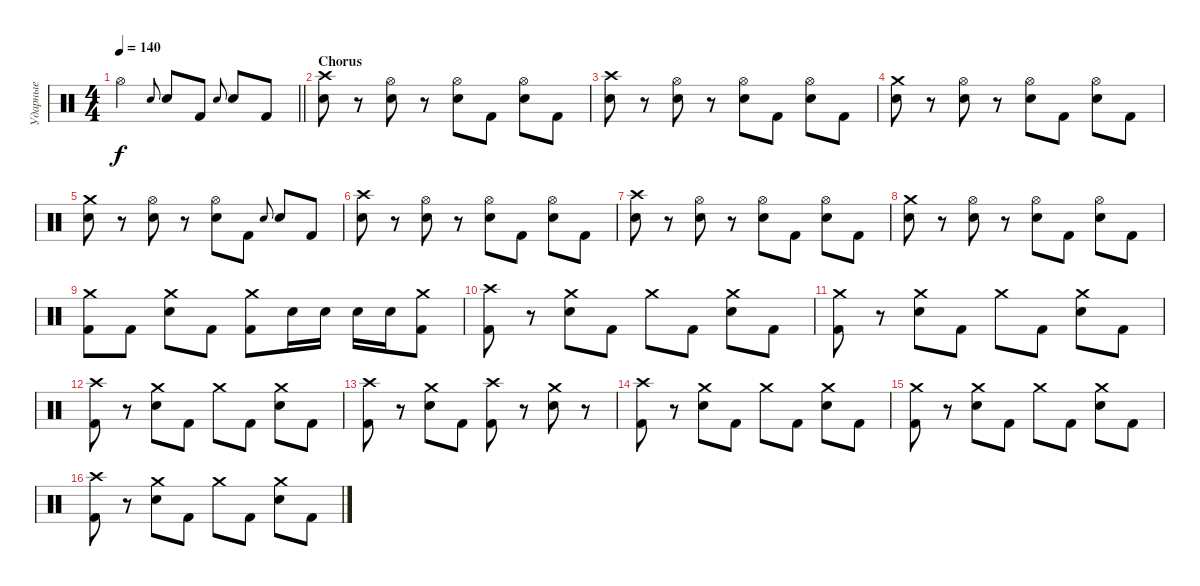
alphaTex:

\track ("Ударные" "Ударные") {instrument percussion}
\staff {score}
\articulation defaults
\ts (4 4)
\tempo 140
\clef neutral
\barLineRight lightlight
\ks c "Hi-Hat (open)".2{dy f} "Snare (hit) 2".8{gr onbeat} "Snare (hit) 2".8 "Kick (hit) 2".8 "Snare (hit) 2".8{gr onbeat} "Snare (hit) 2".8 "Kick (hit) 2".8
|
\section ("" "Chorus")
("Crash high (hit)" "Snare (hit) 2").8 r.8 ("Hi-Hat (open)" "Snare (hit) 2").8 r.8 ("Hi-Hat (open)" "Snare (hit) 2").8 "Kick (hit) 2".8 ("Hi-Hat (open)" "Snare (hit) 2").8 "Kick (hit) 2".8 |
("Crash high (hit)" "Snare (hit) 2").8 r.8 ("Hi-Hat (open)" "Snare (hit) 2").8 r.8 ("Hi-Hat (open)" "Snare (hit) 2").8 "Kick (hit) 2".8 ("Hi-Hat (open)" "Snare (hit) 2").8 "Kick (hit) 2".8 |
("Crash medium (hit)" "Snare (hit) 2").8 r.8 ("Hi-Hat (open)" "Snare (hit) 2").8 r.8 ("Hi-Hat (open)" "Snare (hit) 2").8 "Kick (hit) 2".8 ("Hi-Hat (open)" "Snare (hit) 2").8 "Kick (hit) 2".8 |
("Crash medium (hit)" "Snare (hit) 2").8 r.8 ("Hi-Hat (open)" "Snare (hit) 2").8 r.8 ("Hi-Hat (open)" "Snare (hit) 2").8 "Kick (hit) 2".8 "Snare (hit) 2".8{gr onbeat} "Snare (hit) 2".8 "Kick (hit) 2".8 |
("Crash high (hit)" "Snare (hit) 2").8 r.8 ("Hi-Hat (open)" "Snare (hit) 2").8 r.8 ("Hi-Hat (open)" "Snare (hit) 2").8 "Kick (hit) 2".8 ("Hi-Hat (open)" "Snare (hit) 2").8 "Kick (hit) 2".8 |
("Crash high (hit)" "Snare (hit) 2").8 r.8 ("Hi-Hat (open)" "Snare (hit) 2").8 r.8 ("Hi-Hat (open)" "Snare (hit) 2").8 "Kick (hit) 2".8 ("Hi-Hat (open)" "Snare (hit) 2").8 "Kick (hit) 2".8 |
("Crash medium (hit)" "Snare (hit) 2").8 r.8 ("Hi-Hat (open)" "Snare (hit) 2").8 r.8 ("Hi-Hat (open)" "Snare (hit) 2").8 "Kick (hit) 2".8 ("Hi-Hat (open)" "Snare (hit) 2").8 "Kick (hit) 2".8 |
("Crash medium (hit)" "Kick (hit) 2").8 "Kick (hit) 2".8 ("Crash medium (hit)" "Snare (hit) 2").8 "Kick (hit) 2".8 ("Crash medium (hit)" "Kick (hit) 2").8 "Snare (hit) 2".16 "Snare (hit) 2".16 "Snare (hit) 2".16 "Snare (hit) 2".16 ("Crash medium (hit)" "Kick (hit) 2").8 |
("Crash high (hit)" "Kick (hit) 2").8 r.8 ("Crash medium (hit)" "Snare (hit) 2").8 "Kick (hit) 2".8 "Crash medium (hit)".8 "Kick (hit) 2".8 ("Crash medium (hit)" "Snare (hit) 2").8 "Kick (hit) 2".8 |
("Crash medium (hit)" "Kick (hit) 2").8 r.8 ("Crash medium (hit)" "Snare (hit) 2").8 "Kick (hit) 2".8 "Crash medium (hit)".8 "Kick (hit) 2".8 ("Crash medium (hit)" "Snare (hit) 2").8 "Kick (hit) 2".8 |
("Crash high (hit)" "Kick (hit) 2").8 r.8 ("Crash medium (hit)" "Snare (hit) 2").8 "Kick (hit) 2".8 "Crash medium (hit)".8 "Kick (hit) 2".8 ("Crash medium (hit)" "Snare (hit) 2").8 "Kick (hit) 2".8 |
("Crash high (hit)" "Kick (hit) 2").8 r.8 ("Crash medium (hit)" "Snare (hit) 2").8 "Kick (hit) 2".8 ("Crash high (hit)" "Kick (hit) 2").8 r.8 ("Crash medium (hit)" "Snare (hit) 2").8 r.8 |
("Crash high (hit)" "Kick (hit) 2").8 r.8 ("Crash medium (hit)" "Snare (hit) 2").8 "Kick (hit) 2".8 "Crash medium (hit)".8 "Kick (hit) 2".8 ("Crash medium (hit)" "Snare (hit) 2").8 "Kick (hit) 2".8 |
("Crash medium (hit)" "Kick (hit) 2").8 r.8 ("Crash medium (hit)" "Snare (hit) 2").8 "Kick (hit) 2".8 "Crash medium (hit)".8 "Kick (hit) 2".8 ("Crash medium (hit)" "Snare (hit) 2").8 "Kick (hit) 2".8 |
("Crash high (hit)" "Kick (hit) 2").8 r.8 ("Crash medium (hit)" "Snare (hit) 2").8 "Kick (hit) 2".8 "Crash medium (hit)".8 "Kick (hit) 2".8 ("Crash medium (hit)" "Snare (hit) 2").8 "Kick (hit) 2".8
